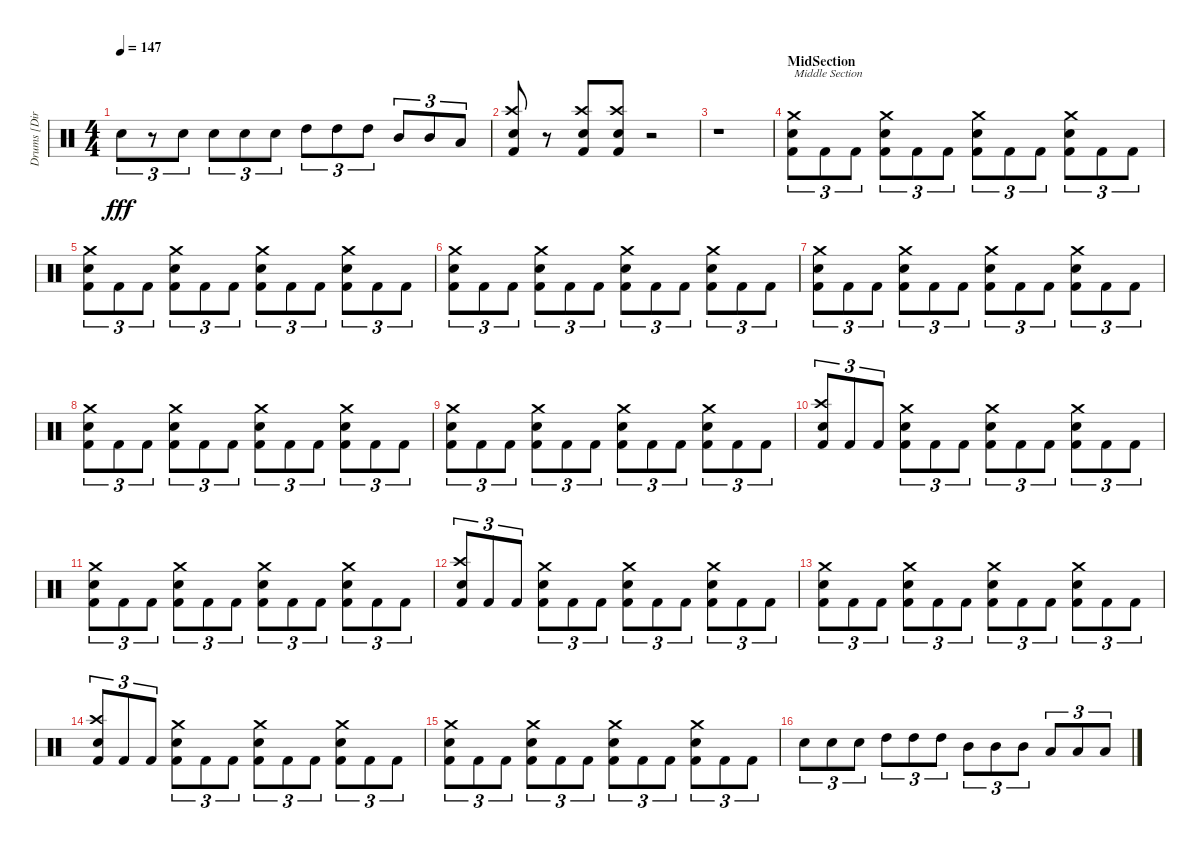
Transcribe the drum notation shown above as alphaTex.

\track ("Drums [Dirge Rep]" "Drums [Dir") {instrument percussion}
\staff {score}
\articulation defaults
\ts (4 4)
\tempo 147
\clef neutral
\ks c "Electric Snare (hit)".8{tu (3 2) dy fff}
r.8{tu (3 2)} "Electric Snare (hit)".8{tu (3 2)} "Electric Snare (hit)".8{tu (3 2)} "Electric Snare (hit)".8{tu (3 2)} "Electric Snare (hit)".8{tu (3 2)} "High Tom (hit)".8{tu (3 2)} "High Tom (hit)".8{tu (3 2)} "High Tom (hit)".8{tu (3 2)} "Mid Tom (hit)".8{tu (3 2)} "Mid Tom (hit)".8{tu (3 2)} "Low Tom (hit)".8{tu (3 2)} |
("Crash high (hit)" "Electric Snare (hit)" "Kick (hit) 2").8 r.8 ("Crash high (hit)" "Electric Snare (hit)" "Kick (hit) 2").8 ("Crash high (hit)" "Electric Snare (hit)" "Kick (hit) 2").8 r.2 |
r.1 |
\section ("" "MidSection")
("Crash medium (hit)" "Electric Snare (hit)" "Kick (hit) 2").8{tu (3 2) txt "Middle Section"} "Kick (hit) 2".8{tu (3 2)} "Kick (hit) 2".8{tu (3 2)} ("Crash medium (hit)" "Electric Snare (hit)" "Kick (hit) 2").8{tu (3 2)} "Kick (hit) 2".8{tu (3 2)} "Kick (hit) 2".8{tu (3 2)} ("Crash medium (hit)" "Electric Snare (hit)" "Kick (hit) 2").8{tu (3 2)} "Kick (hit) 2".8{tu (3 2)} "Kick (hit) 2".8{tu (3 2)} ("Crash medium (hit)" "Electric Snare (hit)" "Kick (hit) 2").8{tu (3 2)} "Kick (hit) 2".8{tu (3 2)} "Kick (hit) 2".8{tu (3 2)} |
("Crash medium (hit)" "Electric Snare (hit)" "Kick (hit) 2").8{tu (3 2)} "Kick (hit) 2".8{tu (3 2)} "Kick (hit) 2".8{tu (3 2)} ("Crash medium (hit)" "Electric Snare (hit)" "Kick (hit) 2").8{tu (3 2)} "Kick (hit) 2".8{tu (3 2)} "Kick (hit) 2".8{tu (3 2)} ("Crash medium (hit)" "Electric Snare (hit)" "Kick (hit) 2").8{tu (3 2)} "Kick (hit) 2".8{tu (3 2)} "Kick (hit) 2".8{tu (3 2)} ("Crash medium (hit)" "Electric Snare (hit)" "Kick (hit) 2").8{tu (3 2)} "Kick (hit) 2".8{tu (3 2)} "Kick (hit) 2".8{tu (3 2)} |
("Crash medium (hit)" "Electric Snare (hit)" "Kick (hit) 2").8{tu (3 2)} "Kick (hit) 2".8{tu (3 2)} "Kick (hit) 2".8{tu (3 2)} ("Crash medium (hit)" "Electric Snare (hit)" "Kick (hit) 2").8{tu (3 2)} "Kick (hit) 2".8{tu (3 2)} "Kick (hit) 2".8{tu (3 2)} ("Crash medium (hit)" "Electric Snare (hit)" "Kick (hit) 2").8{tu (3 2)} "Kick (hit) 2".8{tu (3 2)} "Kick (hit) 2".8{tu (3 2)} ("Crash medium (hit)" "Electric Snare (hit)" "Kick (hit) 2").8{tu (3 2)} "Kick (hit) 2".8{tu (3 2)} "Kick (hit) 2".8{tu (3 2)} |
("Crash medium (hit)" "Electric Snare (hit)" "Kick (hit) 2").8{tu (3 2)} "Kick (hit) 2".8{tu (3 2)} "Kick (hit) 2".8{tu (3 2)} ("Crash medium (hit)" "Electric Snare (hit)" "Kick (hit) 2").8{tu (3 2)} "Kick (hit) 2".8{tu (3 2)} "Kick (hit) 2".8{tu (3 2)} ("Crash medium (hit)" "Electric Snare (hit)" "Kick (hit) 2").8{tu (3 2)} "Kick (hit) 2".8{tu (3 2)} "Kick (hit) 2".8{tu (3 2)} ("Crash medium (hit)" "Electric Snare (hit)" "Kick (hit) 2").8{tu (3 2)} "Kick (hit) 2".8{tu (3 2)} "Kick (hit) 2".8{tu (3 2)} |
("Crash medium (hit)" "Electric Snare (hit)" "Kick (hit) 2").8{tu (3 2)} "Kick (hit) 2".8{tu (3 2)} "Kick (hit) 2".8{tu (3 2)} ("Crash medium (hit)" "Electric Snare (hit)" "Kick (hit) 2").8{tu (3 2)} "Kick (hit) 2".8{tu (3 2)} "Kick (hit) 2".8{tu (3 2)} ("Crash medium (hit)" "Electric Snare (hit)" "Kick (hit) 2").8{tu (3 2)} "Kick (hit) 2".8{tu (3 2)} "Kick (hit) 2".8{tu (3 2)} ("Crash medium (hit)" "Electric Snare (hit)" "Kick (hit) 2").8{tu (3 2)} "Kick (hit) 2".8{tu (3 2)} "Kick (hit) 2".8{tu (3 2)} |
("Crash medium (hit)" "Electric Snare (hit)" "Kick (hit) 2").8{tu (3 2)} "Kick (hit) 2".8{tu (3 2)} "Kick (hit) 2".8{tu (3 2)} ("Crash medium (hit)" "Electric Snare (hit)" "Kick (hit) 2").8{tu (3 2)} "Kick (hit) 2".8{tu (3 2)} "Kick (hit) 2".8{tu (3 2)} ("Crash medium (hit)" "Electric Snare (hit)" "Kick (hit) 2").8{tu (3 2)} "Kick (hit) 2".8{tu (3 2)} "Kick (hit) 2".8{tu (3 2)} ("Crash medium (hit)" "Electric Snare (hit)" "Kick (hit) 2").8{tu (3 2)} "Kick (hit) 2".8{tu (3 2)} "Kick (hit) 2".8{tu (3 2)} |
("Crash high (hit)" "Electric Snare (hit)" "Kick (hit) 2").8{tu (3 2)} "Kick (hit) 2".8{tu (3 2)} "Kick (hit) 2".8{tu (3 2)} ("Crash medium (hit)" "Electric Snare (hit)" "Kick (hit) 2").8{tu (3 2)} "Kick (hit) 2".8{tu (3 2)} "Kick (hit) 2".8{tu (3 2)} ("Crash medium (hit)" "Electric Snare (hit)" "Kick (hit) 2").8{tu (3 2)} "Kick (hit) 2".8{tu (3 2)} "Kick (hit) 2".8{tu (3 2)} ("Crash medium (hit)" "Electric Snare (hit)" "Kick (hit) 2").8{tu (3 2)} "Kick (hit) 2".8{tu (3 2)} "Kick (hit) 2".8{tu (3 2)} |
("Crash medium (hit)" "Electric Snare (hit)" "Kick (hit) 2").8{tu (3 2)} "Kick (hit) 2".8{tu (3 2)} "Kick (hit) 2".8{tu (3 2)} ("Crash medium (hit)" "Electric Snare (hit)" "Kick (hit) 2").8{tu (3 2)} "Kick (hit) 2".8{tu (3 2)} "Kick (hit) 2".8{tu (3 2)} ("Crash medium (hit)" "Electric Snare (hit)" "Kick (hit) 2").8{tu (3 2)} "Kick (hit) 2".8{tu (3 2)} "Kick (hit) 2".8{tu (3 2)} ("Crash medium (hit)" "Electric Snare (hit)" "Kick (hit) 2").8{tu (3 2)} "Kick (hit) 2".8{tu (3 2)} "Kick (hit) 2".8{tu (3 2)} |
("Crash high (hit)" "Electric Snare (hit)" "Kick (hit) 2").8{tu (3 2)} "Kick (hit) 2".8{tu (3 2)} "Kick (hit) 2".8{tu (3 2)} ("Crash medium (hit)" "Electric Snare (hit)" "Kick (hit) 2").8{tu (3 2)} "Kick (hit) 2".8{tu (3 2)} "Kick (hit) 2".8{tu (3 2)} ("Crash medium (hit)" "Electric Snare (hit)" "Kick (hit) 2").8{tu (3 2)} "Kick (hit) 2".8{tu (3 2)} "Kick (hit) 2".8{tu (3 2)} ("Crash medium (hit)" "Electric Snare (hit)" "Kick (hit) 2").8{tu (3 2)} "Kick (hit) 2".8{tu (3 2)} "Kick (hit) 2".8{tu (3 2)} |
("Crash medium (hit)" "Electric Snare (hit)" "Kick (hit) 2").8{tu (3 2)} "Kick (hit) 2".8{tu (3 2)} "Kick (hit) 2".8{tu (3 2)} ("Crash medium (hit)" "Electric Snare (hit)" "Kick (hit) 2").8{tu (3 2)} "Kick (hit) 2".8{tu (3 2)} "Kick (hit) 2".8{tu (3 2)} ("Crash medium (hit)" "Electric Snare (hit)" "Kick (hit) 2").8{tu (3 2)} "Kick (hit) 2".8{tu (3 2)} "Kick (hit) 2".8{tu (3 2)} ("Crash medium (hit)" "Electric Snare (hit)" "Kick (hit) 2").8{tu (3 2)} "Kick (hit) 2".8{tu (3 2)} "Kick (hit) 2".8{tu (3 2)} |
("Crash high (hit)" "Electric Snare (hit)" "Kick (hit) 2").8{tu (3 2)} "Kick (hit) 2".8{tu (3 2)} "Kick (hit) 2".8{tu (3 2)} ("Crash medium (hit)" "Electric Snare (hit)" "Kick (hit) 2").8{tu (3 2)} "Kick (hit) 2".8{tu (3 2)} "Kick (hit) 2".8{tu (3 2)} ("Crash medium (hit)" "Electric Snare (hit)" "Kick (hit) 2").8{tu (3 2)} "Kick (hit) 2".8{tu (3 2)} "Kick (hit) 2".8{tu (3 2)} ("Crash medium (hit)" "Electric Snare (hit)" "Kick (hit) 2").8{tu (3 2)} "Kick (hit) 2".8{tu (3 2)} "Kick (hit) 2".8{tu (3 2)} |
("Crash medium (hit)" "Electric Snare (hit)" "Kick (hit) 2").8{tu (3 2)} "Kick (hit) 2".8{tu (3 2)} "Kick (hit) 2".8{tu (3 2)} ("Crash medium (hit)" "Electric Snare (hit)" "Kick (hit) 2").8{tu (3 2)} "Kick (hit) 2".8{tu (3 2)} "Kick (hit) 2".8{tu (3 2)} ("Crash medium (hit)" "Electric Snare (hit)" "Kick (hit) 2").8{tu (3 2)} "Kick (hit) 2".8{tu (3 2)} "Kick (hit) 2".8{tu (3 2)} ("Crash medium (hit)" "Electric Snare (hit)" "Kick (hit) 2").8{tu (3 2)} "Kick (hit) 2".8{tu (3 2)} "Kick (hit) 2".8{tu (3 2)} |
"Electric Snare (hit)".8{tu (3 2)} "Electric Snare (hit)".8{tu (3 2)} "Electric Snare (hit)".8{tu (3 2)} "High Tom (hit)".8{tu (3 2)} "High Tom (hit)".8{tu (3 2)} "High Tom (hit)".8{tu (3 2)} "Mid Tom (hit)".8{tu (3 2)} "Mid Tom (hit)".8{tu (3 2)} "Mid Tom (hit)".8{tu (3 2)} "Low Tom (hit)".8{tu (3 2)} "Low Tom (hit)".8{tu (3 2)} "Low Tom (hit)".8{tu (3 2)}
